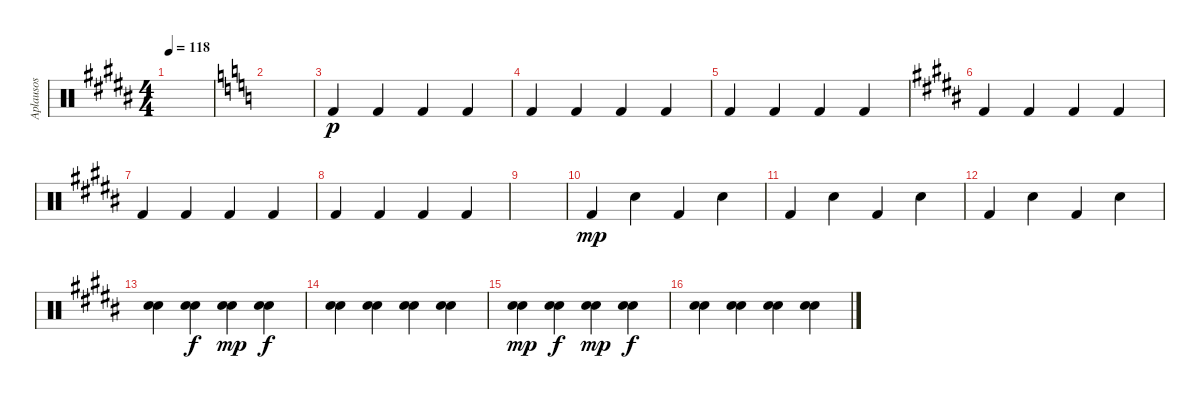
\track ("Aplausos" "Aplausos") {instrument percussion}
\staff {score}
\articulation defaults
\ts (4 4)
\tempo 118
\clef neutral
\ks b
|
\ks c
|
"Kick (hit) 2".4{dy p} "Kick (hit) 2".4 "Kick (hit) 2".4 "Kick (hit) 2".4 |
"Kick (hit) 2".4 "Kick (hit) 2".4 "Kick (hit) 2".4 "Kick (hit) 2".4 |
"Kick (hit) 2".4 "Kick (hit) 2".4 "Kick (hit) 2".4 "Kick (hit) 2".4 |
\ks b "Kick (hit) 2".4 "Kick (hit) 2".4 "Kick (hit) 2".4 "Kick (hit) 2".4
|
"Kick (hit) 2".4 "Kick (hit) 2".4 "Kick (hit) 2".4 "Kick (hit) 2".4 |
"Kick (hit) 2".4 "Kick (hit) 2".4 "Kick (hit) 2".4 "Kick (hit) 2".4 |
|
"Kick (hit) 2".4{dy mp} "Hand Clap (hit)".4 "Kick (hit) 2".4 "Hand Clap (hit)".4 |
"Kick (hit) 2".4 "Hand Clap (hit)".4 "Kick (hit) 2".4 "Hand Clap (hit)".4 |
"Kick (hit) 2".4 "Hand Clap (hit)".4 "Kick (hit) 2".4 "Hand Clap (hit)".4 |
("Hand Clap (hit)" "Hand Clap (hit)").4 ("Hand Clap (hit)" "Hand Clap (hit)").4{dy f} ("Hand Clap (hit)" "Hand Clap (hit)").4{dy mp} ("Hand Clap (hit)" "Hand Clap (hit)").4{dy f} |
("Hand Clap (hit)" "Hand Clap (hit)").4 ("Hand Clap (hit)" "Hand Clap (hit)").4 ("Hand Clap (hit)" "Hand Clap (hit)").4 ("Hand Clap (hit)" "Hand Clap (hit)").4 |
("Hand Clap (hit)" "Hand Clap (hit)").4{dy mp} ("Hand Clap (hit)" "Hand Clap (hit)").4{dy f} ("Hand Clap (hit)" "Hand Clap (hit)").4{dy mp} ("Hand Clap (hit)" "Hand Clap (hit)").4{dy f} |
("Hand Clap (hit)" "Hand Clap (hit)").4 ("Hand Clap (hit)" "Hand Clap (hit)").4 ("Hand Clap (hit)" "Hand Clap (hit)").4 ("Hand Clap (hit)" "Hand Clap (hit)").4
